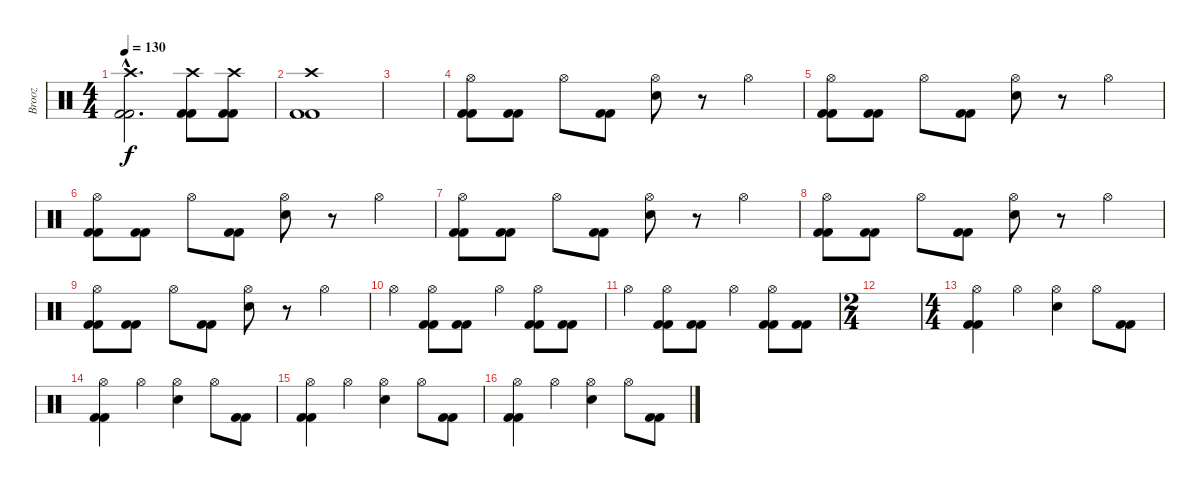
\track ("Brooz" "Brooz") {instrument percussion}
\staff {score}
\articulation defaults
\ts (4 4)
\tempo 130
\clef neutral
\ks c
("Crash high (hit)"{hac} "Kick (hit) 2"{hac} "Kick (hit) 2"{hac}).2{d dy f} ("Crash high (hit)" "Kick (hit) 2" "Kick (hit) 2").8 ("Crash high (hit)" "Kick (hit) 2" "Kick (hit) 2").8 |
("Crash high (hit)" "Kick (hit) 2" "Kick (hit) 2").1 |
|
("Hi-Hat (open)" "Kick (hit) 2" "Kick (hit) 2").8 ("Kick (hit) 2" "Kick (hit) 2").8 "Hi-Hat (open)".8 ("Kick (hit) 2" "Kick (hit) 2").8 ("Hi-Hat (open)" "Snare (hit) 2").8 r.8 "Hi-Hat (open)".4 |
("Hi-Hat (open)" "Kick (hit) 2" "Kick (hit) 2").8 ("Kick (hit) 2" "Kick (hit) 2").8 "Hi-Hat (open)".8 ("Kick (hit) 2" "Kick (hit) 2").8 ("Hi-Hat (open)" "Snare (hit) 2").8 r.8 "Hi-Hat (open)".4 |
("Hi-Hat (open)" "Kick (hit) 2" "Kick (hit) 2").8 ("Kick (hit) 2" "Kick (hit) 2").8 "Hi-Hat (open)".8 ("Kick (hit) 2" "Kick (hit) 2").8 ("Hi-Hat (open)" "Snare (hit) 2").8 r.8 "Hi-Hat (open)".4 |
("Hi-Hat (open)" "Kick (hit) 2" "Kick (hit) 2").8 ("Kick (hit) 2" "Kick (hit) 2").8 "Hi-Hat (open)".8 ("Kick (hit) 2" "Kick (hit) 2").8 ("Hi-Hat (open)" "Snare (hit) 2").8 r.8 "Hi-Hat (open)".4 |
("Hi-Hat (open)" "Kick (hit) 2" "Kick (hit) 2").8 ("Kick (hit) 2" "Kick (hit) 2").8 "Hi-Hat (open)".8 ("Kick (hit) 2" "Kick (hit) 2").8 ("Hi-Hat (open)" "Snare (hit) 2").8 r.8 "Hi-Hat (open)".4 |
("Hi-Hat (open)" "Kick (hit) 2" "Kick (hit) 2").8 ("Kick (hit) 2" "Kick (hit) 2").8 "Hi-Hat (open)".8 ("Kick (hit) 2" "Kick (hit) 2").8 ("Hi-Hat (open)" "Snare (hit) 2").8 r.8 "Hi-Hat (open)".4 |
"Hi-Hat (open)".4 ("Hi-Hat (open)" "Kick (hit) 2" "Kick (hit) 2").8 ("Kick (hit) 2" "Kick (hit) 2").8 "Hi-Hat (open)".4 ("Hi-Hat (open)" "Kick (hit) 2" "Kick (hit) 2").8 ("Kick (hit) 2" "Kick (hit) 2").8 |
"Hi-Hat (open)".4 ("Hi-Hat (open)" "Kick (hit) 2" "Kick (hit) 2").8 ("Kick (hit) 2" "Kick (hit) 2").8 "Hi-Hat (open)".4 ("Hi-Hat (open)" "Kick (hit) 2" "Kick (hit) 2").8 ("Kick (hit) 2" "Kick (hit) 2").8 |
\ts (2 4)
|
\ts (4 4)
("Hi-Hat (open)" "Kick (hit) 2" "Kick (hit) 2").4 "Hi-Hat (open)".4 ("Hi-Hat (open)" "Snare (hit) 2").4 "Hi-Hat (open)".8 ("Kick (hit) 2" "Kick (hit) 2").8 |
("Hi-Hat (open)" "Kick (hit) 2" "Kick (hit) 2").4 "Hi-Hat (open)".4 ("Hi-Hat (open)" "Snare (hit) 2").4 "Hi-Hat (open)".8 ("Kick (hit) 2" "Kick (hit) 2").8 |
("Hi-Hat (open)" "Kick (hit) 2" "Kick (hit) 2").4 "Hi-Hat (open)".4 ("Hi-Hat (open)" "Snare (hit) 2").4 "Hi-Hat (open)".8 ("Kick (hit) 2" "Kick (hit) 2").8 |
("Hi-Hat (open)" "Kick (hit) 2" "Kick (hit) 2").4 "Hi-Hat (open)".4 ("Hi-Hat (open)" "Snare (hit) 2").4 "Hi-Hat (open)".8 ("Kick (hit) 2" "Kick (hit) 2").8
